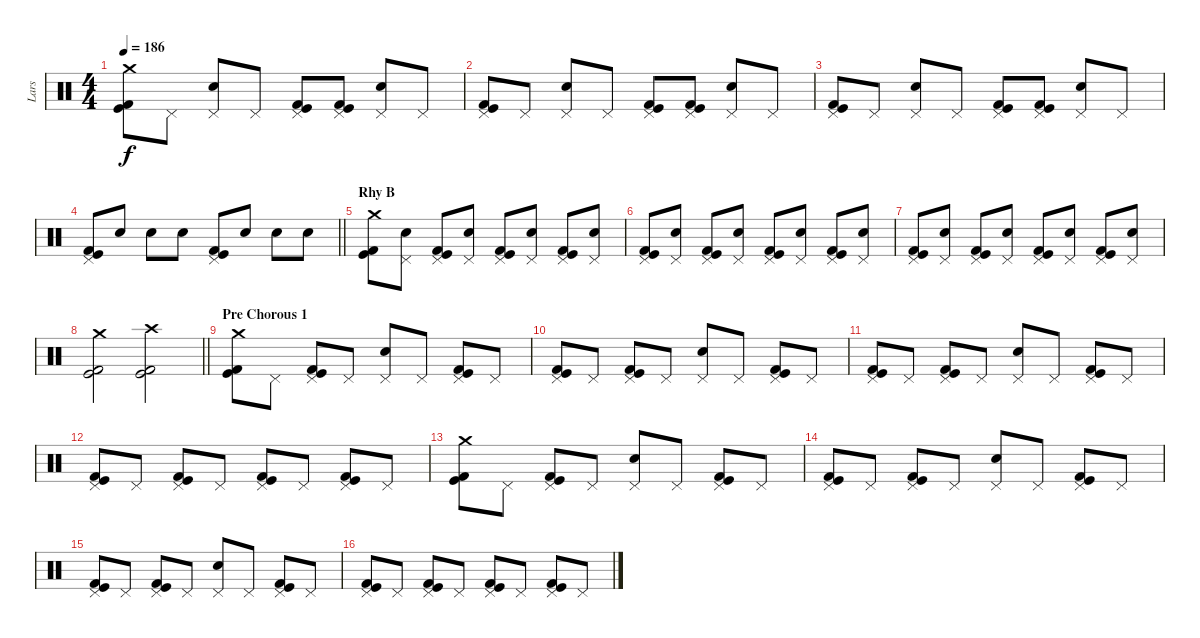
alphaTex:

\track ("Lars" "Lars") {instrument percussion}
\staff {score}
\articulation defaults
\ts (4 4)
\tempo 186
\clef neutral
\ks c
("Crash medium (hit)" "Kick (hit)" "Kick (hit) 2").8{dy f} "Pedal Hi-Hat (hit)".8 ("Pedal Hi-Hat (hit)" "Electric Snare (hit)").8 "Pedal Hi-Hat (hit)".8 ("Pedal Hi-Hat (hit)" "Kick (hit)" "Kick (hit) 2").8 ("Pedal Hi-Hat (hit)" "Kick (hit)" "Kick (hit) 2").8 ("Pedal Hi-Hat (hit)" "Electric Snare (hit)").8 "Pedal Hi-Hat (hit)".8 |
("Pedal Hi-Hat (hit)" "Kick (hit)" "Kick (hit) 2").8 "Pedal Hi-Hat (hit)".8 ("Pedal Hi-Hat (hit)" "Electric Snare (hit)").8 "Pedal Hi-Hat (hit)".8 ("Pedal Hi-Hat (hit)" "Kick (hit)" "Kick (hit) 2").8 ("Pedal Hi-Hat (hit)" "Kick (hit)" "Kick (hit) 2").8 ("Pedal Hi-Hat (hit)" "Electric Snare (hit)").8 "Pedal Hi-Hat (hit)".8 |
("Pedal Hi-Hat (hit)" "Kick (hit)" "Kick (hit) 2").8 "Pedal Hi-Hat (hit)".8 ("Pedal Hi-Hat (hit)" "Electric Snare (hit)").8 "Pedal Hi-Hat (hit)".8 ("Pedal Hi-Hat (hit)" "Kick (hit)" "Kick (hit) 2").8 ("Pedal Hi-Hat (hit)" "Kick (hit)" "Kick (hit) 2").8 ("Pedal Hi-Hat (hit)" "Electric Snare (hit)").8 "Pedal Hi-Hat (hit)".8 |
\barLineRight lightlight
("Pedal Hi-Hat (hit)" "Kick (hit)" "Kick (hit) 2").8 "Electric Snare (hit)".8 "Electric Snare (hit)".8 "Electric Snare (hit)".8 ("Pedal Hi-Hat (hit)" "Kick (hit)" "Kick (hit) 2").8 "Electric Snare (hit)".8 "Electric Snare (hit)".8 "Electric Snare (hit)".8 |
\section ("" "Rhy B")
("Crash medium (hit)" "Kick (hit)" "Kick (hit) 2").8 ("Pedal Hi-Hat (hit)" "Electric Snare (hit)").8 ("Pedal Hi-Hat (hit)" "Kick (hit)" "Kick (hit) 2").8 ("Pedal Hi-Hat (hit)" "Electric Snare (hit)").8 ("Pedal Hi-Hat (hit)" "Kick (hit)" "Kick (hit) 2").8 ("Pedal Hi-Hat (hit)" "Electric Snare (hit)").8 ("Pedal Hi-Hat (hit)" "Kick (hit)" "Kick (hit) 2").8 ("Pedal Hi-Hat (hit)" "Electric Snare (hit)").8 |
("Pedal Hi-Hat (hit)" "Kick (hit)" "Kick (hit) 2").8 ("Pedal Hi-Hat (hit)" "Electric Snare (hit)").8 ("Pedal Hi-Hat (hit)" "Kick (hit)" "Kick (hit) 2").8 ("Pedal Hi-Hat (hit)" "Electric Snare (hit)").8 ("Pedal Hi-Hat (hit)" "Kick (hit)" "Kick (hit) 2").8 ("Pedal Hi-Hat (hit)" "Electric Snare (hit)").8 ("Pedal Hi-Hat (hit)" "Kick (hit)" "Kick (hit) 2").8 ("Pedal Hi-Hat (hit)" "Electric Snare (hit)").8 |
("Pedal Hi-Hat (hit)" "Kick (hit)" "Kick (hit) 2").8 ("Pedal Hi-Hat (hit)" "Electric Snare (hit)").8 ("Pedal Hi-Hat (hit)" "Kick (hit)" "Kick (hit) 2").8 ("Pedal Hi-Hat (hit)" "Electric Snare (hit)").8 ("Pedal Hi-Hat (hit)" "Kick (hit)" "Kick (hit) 2").8 ("Pedal Hi-Hat (hit)" "Electric Snare (hit)").8 ("Pedal Hi-Hat (hit)" "Kick (hit)" "Kick (hit) 2").8 ("Pedal Hi-Hat (hit)" "Electric Snare (hit)").8 |
\barLineRight lightlight
("Crash medium (hit)" "Kick (hit)" "Kick (hit) 2").2 ("Crash high (hit)" "Kick (hit)" "Kick (hit) 2").2 |
\section ("" "Pre Chorous 1")
("Crash medium (hit)" "Kick (hit)" "Kick (hit) 2").8 "Pedal Hi-Hat (hit)".8 ("Pedal Hi-Hat (hit)" "Kick (hit)" "Kick (hit) 2").8 "Pedal Hi-Hat (hit)".8 ("Pedal Hi-Hat (hit)" "Electric Snare (hit)").8 "Pedal Hi-Hat (hit)".8 ("Pedal Hi-Hat (hit)" "Kick (hit)" "Kick (hit) 2").8 "Pedal Hi-Hat (hit)".8 |
("Pedal Hi-Hat (hit)" "Kick (hit)" "Kick (hit) 2").8 "Pedal Hi-Hat (hit)".8 ("Pedal Hi-Hat (hit)" "Kick (hit)" "Kick (hit) 2").8 "Pedal Hi-Hat (hit)".8 ("Pedal Hi-Hat (hit)" "Electric Snare (hit)").8 "Pedal Hi-Hat (hit)".8 ("Pedal Hi-Hat (hit)" "Kick (hit)" "Kick (hit) 2").8 "Pedal Hi-Hat (hit)".8 |
("Pedal Hi-Hat (hit)" "Kick (hit)" "Kick (hit) 2").8 "Pedal Hi-Hat (hit)".8 ("Pedal Hi-Hat (hit)" "Kick (hit)" "Kick (hit) 2").8 "Pedal Hi-Hat (hit)".8 ("Pedal Hi-Hat (hit)" "Electric Snare (hit)").8 "Pedal Hi-Hat (hit)".8 ("Pedal Hi-Hat (hit)" "Kick (hit)" "Kick (hit) 2").8 "Pedal Hi-Hat (hit)".8 |
("Pedal Hi-Hat (hit)" "Kick (hit)" "Kick (hit) 2").8 "Pedal Hi-Hat (hit)".8 ("Pedal Hi-Hat (hit)" "Kick (hit)" "Kick (hit) 2").8 "Pedal Hi-Hat (hit)".8 ("Pedal Hi-Hat (hit)" "Kick (hit)" "Kick (hit) 2").8 "Pedal Hi-Hat (hit)".8 ("Pedal Hi-Hat (hit)" "Kick (hit)" "Kick (hit) 2").8 "Pedal Hi-Hat (hit)".8 |
("Crash medium (hit)" "Kick (hit)" "Kick (hit) 2").8 "Pedal Hi-Hat (hit)".8 ("Pedal Hi-Hat (hit)" "Kick (hit)" "Kick (hit) 2").8 "Pedal Hi-Hat (hit)".8 ("Pedal Hi-Hat (hit)" "Electric Snare (hit)").8 "Pedal Hi-Hat (hit)".8 ("Pedal Hi-Hat (hit)" "Kick (hit)" "Kick (hit) 2").8 "Pedal Hi-Hat (hit)".8 |
("Pedal Hi-Hat (hit)" "Kick (hit)" "Kick (hit) 2").8 "Pedal Hi-Hat (hit)".8 ("Pedal Hi-Hat (hit)" "Kick (hit)" "Kick (hit) 2").8 "Pedal Hi-Hat (hit)".8 ("Pedal Hi-Hat (hit)" "Electric Snare (hit)").8 "Pedal Hi-Hat (hit)".8 ("Pedal Hi-Hat (hit)" "Kick (hit)" "Kick (hit) 2").8 "Pedal Hi-Hat (hit)".8 |
("Pedal Hi-Hat (hit)" "Kick (hit)" "Kick (hit) 2").8 "Pedal Hi-Hat (hit)".8 ("Pedal Hi-Hat (hit)" "Kick (hit)" "Kick (hit) 2").8 "Pedal Hi-Hat (hit)".8 ("Pedal Hi-Hat (hit)" "Electric Snare (hit)").8 "Pedal Hi-Hat (hit)".8 ("Pedal Hi-Hat (hit)" "Kick (hit)" "Kick (hit) 2").8 "Pedal Hi-Hat (hit)".8 |
("Pedal Hi-Hat (hit)" "Kick (hit)" "Kick (hit) 2").8 "Pedal Hi-Hat (hit)".8 ("Pedal Hi-Hat (hit)" "Kick (hit)" "Kick (hit) 2").8 "Pedal Hi-Hat (hit)".8 ("Pedal Hi-Hat (hit)" "Kick (hit)" "Kick (hit) 2").8 "Pedal Hi-Hat (hit)".8 ("Pedal Hi-Hat (hit)" "Kick (hit)" "Kick (hit) 2").8 "Pedal Hi-Hat (hit)".8
